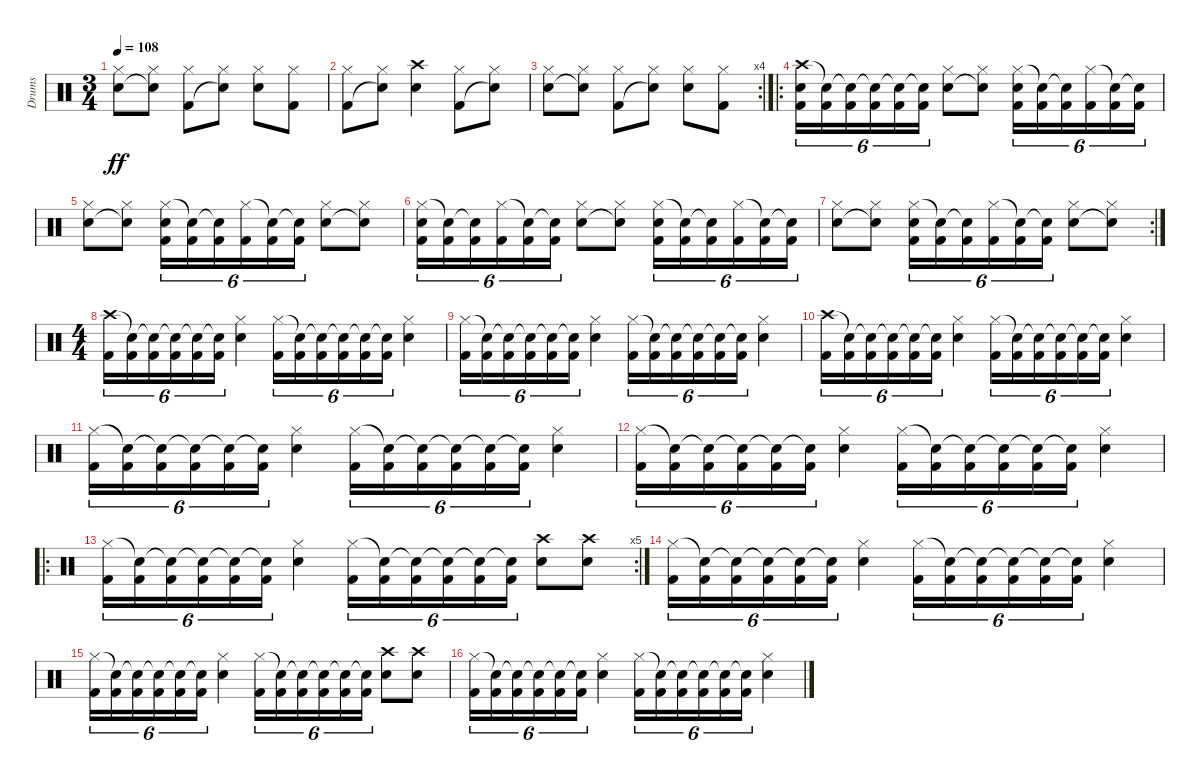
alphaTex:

\track ("Drums" "Drums") {instrument percussion}
\staff {score}
\articulation defaults
\ts (3 4)
\tempo 108
\clef neutral
\ks c
("Hi-Hat (closed)" "Snare (hit) 2").8{dy ff} ("Hi-Hat (closed)" "Snare (hit)"{t}).8 ("Hi-Hat (closed)" "Kick (hit) 2").8 ("Hi-Hat (closed)" "Snare (hit)"{t}).8 ("Hi-Hat (closed)" "Snare (hit) 2").8 ("Hi-Hat (closed)" "Kick (hit) 2").8 |
("Hi-Hat (closed)" "Kick (hit) 2").8 ("Hi-Hat (closed)" "Snare (hit)"{t}).8 ("Crash high (hit)" "Snare (hit) 2").4 ("Hi-Hat (closed)" "Kick (hit) 2").8 ("Hi-Hat (closed)" "Snare (hit)"{t}).8 |
\rc 4
("Hi-Hat (closed)" "Snare (hit) 2").8 ("Hi-Hat (closed)" "Snare (hit)"{t}).8 ("Hi-Hat (closed)" "Kick (hit) 2").8 ("Hi-Hat (closed)" "Snare (hit)"{t}).8 ("Hi-Hat (closed)" "Snare (hit) 2").8 ("Hi-Hat (closed)" "Kick (hit) 2").8 |
\ro
("Crash high (hit)" "Snare (hit) 2" "Kick (hit) 2").16{tu (6 4)} ("Snare (hit)"{t} "Kick (hit) 2").16{tu (6 4)} ("Snare (hit)"{t} "Kick (hit) 2").16{tu (6 4)} ("Snare (hit)"{t} "Kick (hit) 2").16{tu (6 4)} ("Snare (hit)"{t} "Kick (hit) 2").16{tu (6 4)} ("Snare (hit)"{t} "Kick (hit) 2").16{tu (6 4)} ("Hi-Hat (closed)" "Snare (hit) 2").8 ("Hi-Hat (closed)" "Snare (hit)"{t}).8 ("Hi-Hat (closed)" "Snare (hit) 2" "Kick (hit) 2").16{tu (6 4)} ("Snare (hit)"{t} "Kick (hit) 2").16{tu (6 4)} ("Snare (hit)"{t} "Kick (hit) 2").16{tu (6 4)} ("Hi-Hat (closed)" "Kick (hit) 2").16{tu (6 4)} ("Snare (hit)"{t} "Kick (hit) 2").16{tu (6 4)} ("Snare (hit)"{t} "Kick (hit) 2").16{tu (6 4)} |
("Hi-Hat (closed)" "Snare (hit) 2").8 ("Hi-Hat (closed)" "Snare (hit)"{t}).8 ("Hi-Hat (closed)" "Snare (hit) 2" "Kick (hit) 2").16{tu (6 4)} ("Snare (hit)"{t} "Kick (hit) 2").16{tu (6 4)} ("Snare (hit)"{t} "Kick (hit) 2").16{tu (6 4)} ("Hi-Hat (closed)" "Kick (hit) 2").16{tu (6 4)} ("Snare (hit)"{t} "Kick (hit) 2").16{tu (6 4)} ("Snare (hit)"{t} "Kick (hit) 2").16{tu (6 4)} ("Hi-Hat (closed)" "Snare (hit) 2").8 ("Hi-Hat (closed)" "Snare (hit)"{t}).8 |
("Hi-Hat (closed)" "Snare (hit) 2" "Kick (hit) 2").16{tu (6 4)} ("Snare (hit)"{t} "Kick (hit) 2").16{tu (6 4)} ("Snare (hit)"{t} "Kick (hit) 2").16{tu (6 4)} ("Hi-Hat (closed)" "Kick (hit) 2").16{tu (6 4)} ("Snare (hit)"{t} "Kick (hit) 2").16{tu (6 4)} ("Snare (hit)"{t} "Kick (hit) 2").16{tu (6 4)} ("Hi-Hat (closed)" "Snare (hit) 2").8 ("Hi-Hat (closed)" "Snare (hit)"{t}).8 ("Hi-Hat (closed)" "Snare (hit) 2" "Kick (hit) 2").16{tu (6 4)} ("Snare (hit)"{t} "Kick (hit) 2").16{tu (6 4)} ("Snare (hit)"{t} "Kick (hit) 2").16{tu (6 4)} ("Hi-Hat (closed)" "Kick (hit) 2").16{tu (6 4)} ("Snare (hit)"{t} "Kick (hit) 2").16{tu (6 4)} ("Snare (hit)"{t} "Kick (hit) 2").16{tu (6 4)} |
\rc 2
("Hi-Hat (closed)" "Snare (hit) 2").8 ("Hi-Hat (closed)" "Snare (hit)"{t}).8 ("Hi-Hat (closed)" "Snare (hit) 2" "Kick (hit) 2").16{tu (6 4)} ("Snare (hit)"{t} "Kick (hit) 2").16{tu (6 4)} ("Snare (hit)"{t} "Kick (hit) 2").16{tu (6 4)} ("Hi-Hat (closed)" "Kick (hit) 2").16{tu (6 4)} ("Snare (hit)"{t} "Kick (hit) 2").16{tu (6 4)} ("Snare (hit)"{t} "Kick (hit) 2").16{tu (6 4)} ("Hi-Hat (closed)" "Snare (hit) 2").8 ("Hi-Hat (closed)" "Snare (hit)"{t}).8 |
\ts (4 4)
("Crash high (hit)" "Kick (hit) 2").16{tu (6 4)} ("Snare (hit)"{t} "Kick (hit) 2").16{tu (6 4)} ("Snare (hit)"{t} "Kick (hit) 2").16{tu (6 4)} ("Snare (hit)"{t} "Kick (hit) 2").16{tu (6 4)} ("Snare (hit)"{t} "Kick (hit) 2").16{tu (6 4)} ("Snare (hit)"{t} "Kick (hit) 2").16{tu (6 4)} ("Hi-Hat (closed)" "Snare (hit) 2").4 ("Hi-Hat (closed)" "Kick (hit) 2").16{tu (6 4)} ("Snare (hit)"{t} "Kick (hit) 2").16{tu (6 4)} ("Snare (hit)"{t} "Kick (hit) 2").16{tu (6 4)} ("Snare (hit)"{t} "Kick (hit) 2").16{tu (6 4)} ("Snare (hit)"{t} "Kick (hit) 2").16{tu (6 4)} ("Snare (hit)"{t} "Kick (hit) 2").16{tu (6 4)} ("Hi-Hat (closed)" "Snare (hit) 2").4 |
("Hi-Hat (closed)" "Kick (hit) 2").16{tu (6 4)} ("Snare (hit)"{t} "Kick (hit) 2").16{tu (6 4)} ("Snare (hit)"{t} "Kick (hit) 2").16{tu (6 4)} ("Snare (hit)"{t} "Kick (hit) 2").16{tu (6 4)} ("Snare (hit)"{t} "Kick (hit) 2").16{tu (6 4)} ("Snare (hit)"{t} "Kick (hit) 2").16{tu (6 4)} ("Hi-Hat (closed)" "Snare (hit) 2").4 ("Hi-Hat (closed)" "Kick (hit) 2").16{tu (6 4)} ("Snare (hit)"{t} "Kick (hit) 2").16{tu (6 4)} ("Snare (hit)"{t} "Kick (hit) 2").16{tu (6 4)} ("Snare (hit)"{t} "Kick (hit) 2").16{tu (6 4)} ("Snare (hit)"{t} "Kick (hit) 2").16{tu (6 4)} ("Snare (hit)"{t} "Kick (hit) 2").16{tu (6 4)} ("Hi-Hat (closed)" "Snare (hit) 2").4 |
("Crash high (hit)" "Kick (hit) 2").16{tu (6 4)} ("Snare (hit)"{t} "Kick (hit) 2").16{tu (6 4)} ("Snare (hit)"{t} "Kick (hit) 2").16{tu (6 4)} ("Snare (hit)"{t} "Kick (hit) 2").16{tu (6 4)} ("Snare (hit)"{t} "Kick (hit) 2").16{tu (6 4)} ("Snare (hit)"{t} "Kick (hit) 2").16{tu (6 4)} ("Hi-Hat (closed)" "Snare (hit) 2").4 ("Hi-Hat (closed)" "Kick (hit) 2").16{tu (6 4)} ("Snare (hit)"{t} "Kick (hit) 2").16{tu (6 4)} ("Snare (hit)"{t} "Kick (hit) 2").16{tu (6 4)} ("Snare (hit)"{t} "Kick (hit) 2").16{tu (6 4)} ("Snare (hit)"{t} "Kick (hit) 2").16{tu (6 4)} ("Snare (hit)"{t} "Kick (hit) 2").16{tu (6 4)} ("Hi-Hat (closed)" "Snare (hit) 2").4 |
("Hi-Hat (closed)" "Kick (hit) 2").16{tu (6 4)} ("Snare (hit)"{t} "Kick (hit) 2").16{tu (6 4)} ("Snare (hit)"{t} "Kick (hit) 2").16{tu (6 4)} ("Snare (hit)"{t} "Kick (hit) 2").16{tu (6 4)} ("Snare (hit)"{t} "Kick (hit) 2").16{tu (6 4)} ("Snare (hit)"{t} "Kick (hit) 2").16{tu (6 4)} ("Hi-Hat (closed)" "Snare (hit) 2").4 ("Hi-Hat (closed)" "Kick (hit) 2").16{tu (6 4)} ("Snare (hit)"{t} "Kick (hit) 2").16{tu (6 4)} ("Snare (hit)"{t} "Kick (hit) 2").16{tu (6 4)} ("Snare (hit)"{t} "Kick (hit) 2").16{tu (6 4)} ("Snare (hit)"{t} "Kick (hit) 2").16{tu (6 4)} ("Snare (hit)"{t} "Kick (hit) 2").16{tu (6 4)} ("Hi-Hat (closed)" "Snare (hit) 2").4 |
("Hi-Hat (closed)" "Kick (hit) 2").16{tu (6 4)} ("Snare (hit)"{t} "Kick (hit) 2").16{tu (6 4)} ("Snare (hit)"{t} "Kick (hit) 2").16{tu (6 4)} ("Snare (hit)"{t} "Kick (hit) 2").16{tu (6 4)} ("Snare (hit)"{t} "Kick (hit) 2").16{tu (6 4)} ("Snare (hit)"{t} "Kick (hit) 2").16{tu (6 4)} ("Hi-Hat (closed)" "Snare (hit) 2").4 ("Hi-Hat (closed)" "Kick (hit) 2").16{tu (6 4)} ("Snare (hit)"{t} "Kick (hit) 2").16{tu (6 4)} ("Snare (hit)"{t} "Kick (hit) 2").16{tu (6 4)} ("Snare (hit)"{t} "Kick (hit) 2").16{tu (6 4)} ("Snare (hit)"{t} "Kick (hit) 2").16{tu (6 4)} ("Snare (hit)"{t} "Kick (hit) 2").16{tu (6 4)} ("Hi-Hat (closed)" "Snare (hit) 2").4 |
\ro
\rc 5
("Hi-Hat (closed)" "Kick (hit) 2").16{tu (6 4)} ("Snare (hit)"{t} "Kick (hit) 2").16{tu (6 4)} ("Snare (hit)"{t} "Kick (hit) 2").16{tu (6 4)} ("Snare (hit)"{t} "Kick (hit) 2").16{tu (6 4)} ("Snare (hit)"{t} "Kick (hit) 2").16{tu (6 4)} ("Snare (hit)"{t} "Kick (hit) 2").16{tu (6 4)} ("Hi-Hat (closed)" "Snare (hit) 2").4 ("Hi-Hat (closed)" "Kick (hit) 2").16{tu (6 4)} ("Snare (hit)"{t} "Kick (hit) 2").16{tu (6 4)} ("Snare (hit)"{t} "Kick (hit) 2").16{tu (6 4)} ("Snare (hit)"{t} "Kick (hit) 2").16{tu (6 4)} ("Snare (hit)"{t} "Kick (hit) 2").16{tu (6 4)} ("Snare (hit)"{t} "Kick (hit) 2").16{tu (6 4)} ("Crash high (hit)" "Snare (hit) 2").8 ("Crash high (hit)" "Snare (hit) 2").8 |
("Hi-Hat (closed)" "Kick (hit) 2").16{tu (6 4)} ("Snare (hit)"{t} "Kick (hit) 2").16{tu (6 4)} ("Snare (hit)"{t} "Kick (hit) 2").16{tu (6 4)} ("Snare (hit)"{t} "Kick (hit) 2").16{tu (6 4)} ("Snare (hit)"{t} "Kick (hit) 2").16{tu (6 4)} ("Snare (hit)"{t} "Kick (hit) 2").16{tu (6 4)} ("Hi-Hat (closed)" "Snare (hit) 2").4 ("Hi-Hat (closed)" "Kick (hit) 2").16{tu (6 4)} ("Snare (hit)"{t} "Kick (hit) 2").16{tu (6 4)} ("Snare (hit)"{t} "Kick (hit) 2").16{tu (6 4)} ("Snare (hit)"{t} "Kick (hit) 2").16{tu (6 4)} ("Snare (hit)"{t} "Kick (hit) 2").16{tu (6 4)} ("Snare (hit)"{t} "Kick (hit) 2").16{tu (6 4)} ("Hi-Hat (closed)" "Snare (hit) 2").4 |
("Hi-Hat (closed)" "Kick (hit) 2").16{tu (6 4)} ("Snare (hit)"{t} "Kick (hit) 2").16{tu (6 4)} ("Snare (hit)"{t} "Kick (hit) 2").16{tu (6 4)} ("Snare (hit)"{t} "Kick (hit) 2").16{tu (6 4)} ("Snare (hit)"{t} "Kick (hit) 2").16{tu (6 4)} ("Snare (hit)"{t} "Kick (hit) 2").16{tu (6 4)} ("Hi-Hat (closed)" "Snare (hit) 2").4 ("Hi-Hat (closed)" "Kick (hit) 2").16{tu (6 4)} ("Snare (hit)"{t} "Kick (hit) 2").16{tu (6 4)} ("Snare (hit)"{t} "Kick (hit) 2").16{tu (6 4)} ("Snare (hit)"{t} "Kick (hit) 2").16{tu (6 4)} ("Snare (hit)"{t} "Kick (hit) 2").16{tu (6 4)} ("Snare (hit)"{t} "Kick (hit) 2").16{tu (6 4)} ("Crash high (hit)" "Snare (hit) 2").8 ("Crash high (hit)" "Snare (hit) 2").8 |
("Hi-Hat (closed)" "Kick (hit) 2").16{tu (6 4)} ("Snare (hit)"{t} "Kick (hit) 2").16{tu (6 4)} ("Snare (hit)"{t} "Kick (hit) 2").16{tu (6 4)} ("Snare (hit)"{t} "Kick (hit) 2").16{tu (6 4)} ("Snare (hit)"{t} "Kick (hit) 2").16{tu (6 4)} ("Snare (hit)"{t} "Kick (hit) 2").16{tu (6 4)} ("Hi-Hat (closed)" "Snare (hit) 2").4 ("Hi-Hat (closed)" "Kick (hit) 2").16{tu (6 4)} ("Snare (hit)"{t} "Kick (hit) 2").16{tu (6 4)} ("Snare (hit)"{t} "Kick (hit) 2").16{tu (6 4)} ("Snare (hit)"{t} "Kick (hit) 2").16{tu (6 4)} ("Snare (hit)"{t} "Kick (hit) 2").16{tu (6 4)} ("Snare (hit)"{t} "Kick (hit) 2").16{tu (6 4)} ("Hi-Hat (closed)" "Snare (hit) 2").4
